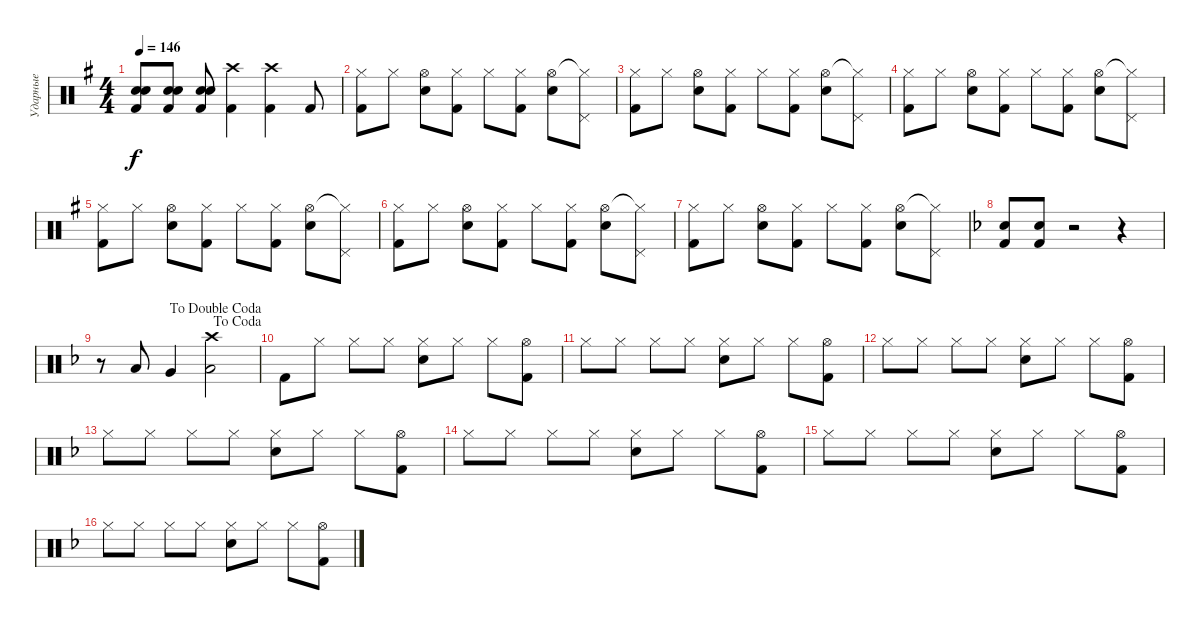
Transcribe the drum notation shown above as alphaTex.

\track ("Ударные" "Ударные") {instrument percussion}
\staff {score}
\articulation defaults
\ts (4 4)
\tempo 146
\clef neutral
\ks g
("Snare (hit) 2" "Snare (hit) 2" "Kick (hit) 2").8{dy f} ("Snare (hit) 2" "Snare (hit) 2" "Kick (hit) 2").8 ("Snare (hit) 2" "Snare (hit) 2" "Kick (hit) 2").8 ("Crash high (hit)" "Kick (hit) 2").4 ("Crash high (hit)" "Kick (hit) 2").4 "Kick (hit) 2".8 |
("Hi-Hat (closed)" "Kick (hit) 2").8 "Hi-Hat (closed)".8 ("Hi-Hat (open)" "Snare (hit) 2").8 ("Hi-Hat (closed)" "Kick (hit) 2").8 "Hi-Hat (closed)".8 ("Hi-Hat (closed)" "Kick (hit) 2").8 ("Hi-Hat (open)" "Snare (hit) 2").8 ("Hi-Hat (closed)"{t} "Pedal Hi-Hat (hit)").8 |
("Hi-Hat (closed)" "Kick (hit) 2").8 "Hi-Hat (closed)".8 ("Hi-Hat (open)" "Snare (hit) 2").8 ("Hi-Hat (closed)" "Kick (hit) 2").8 "Hi-Hat (closed)".8 ("Hi-Hat (closed)" "Kick (hit) 2").8 ("Hi-Hat (open)" "Snare (hit) 2").8 ("Hi-Hat (closed)"{t} "Pedal Hi-Hat (hit)").8 |
("Hi-Hat (closed)" "Kick (hit) 2").8 "Hi-Hat (closed)".8 ("Hi-Hat (open)" "Snare (hit) 2").8 ("Hi-Hat (closed)" "Kick (hit) 2").8 "Hi-Hat (closed)".8 ("Hi-Hat (closed)" "Kick (hit) 2").8 ("Hi-Hat (open)" "Snare (hit) 2").8 ("Hi-Hat (closed)"{t} "Pedal Hi-Hat (hit)").8 |
("Hi-Hat (closed)" "Kick (hit) 2").8 "Hi-Hat (closed)".8 ("Hi-Hat (open)" "Snare (hit) 2").8 ("Hi-Hat (closed)" "Kick (hit) 2").8 "Hi-Hat (closed)".8 ("Hi-Hat (closed)" "Kick (hit) 2").8 ("Hi-Hat (open)" "Snare (hit) 2").8 ("Hi-Hat (closed)"{t} "Pedal Hi-Hat (hit)").8 |
("Hi-Hat (closed)" "Kick (hit) 2").8 "Hi-Hat (closed)".8 ("Hi-Hat (open)" "Snare (hit) 2").8 ("Hi-Hat (closed)" "Kick (hit) 2").8 "Hi-Hat (closed)".8 ("Hi-Hat (closed)" "Kick (hit) 2").8 ("Hi-Hat (open)" "Snare (hit) 2").8 ("Hi-Hat (closed)"{t} "Pedal Hi-Hat (hit)").8 |
("Hi-Hat (closed)" "Kick (hit) 2").8 "Hi-Hat (closed)".8 ("Hi-Hat (open)" "Snare (hit) 2").8 ("Hi-Hat (closed)" "Kick (hit) 2").8 "Hi-Hat (closed)".8 ("Hi-Hat (closed)" "Kick (hit) 2").8 ("Hi-Hat (open)" "Snare (hit) 2").8 ("Hi-Hat (closed)"{t} "Pedal Hi-Hat (hit)").8 |
\ks f
("Snare (hit) 2" "Kick (hit) 2").8 ("Snare (hit) 2" "Kick (hit) 2").8 r.2 r.4 |
\jump dacoda
\jump dadoublecoda
r.8 "Low Tom (hit)".8 "Very Low Tom (hit)".4 ("Crash high (hit)" "Low Floor Tom (hit)").2 |
"Kick (hit) 2".8 "Hi-Hat (closed)".8 "Hi-Hat (closed)".8 "Hi-Hat (closed)".8 ("Hi-Hat (closed)" "Snare (hit) 2").8 "Hi-Hat (closed)".8 "Hi-Hat (closed)".8 ("Hi-Hat (open)" "Kick (hit) 2").8 |
"Hi-Hat (closed)".8 "Hi-Hat (closed)".8 "Hi-Hat (closed)".8 "Hi-Hat (closed)".8 ("Hi-Hat (closed)" "Snare (hit) 2").8 "Hi-Hat (closed)".8 "Hi-Hat (closed)".8 ("Hi-Hat (open)" "Kick (hit) 2").8 |
"Hi-Hat (closed)".8 "Hi-Hat (closed)".8 "Hi-Hat (closed)".8 "Hi-Hat (closed)".8 ("Hi-Hat (closed)" "Snare (hit) 2").8 "Hi-Hat (closed)".8 "Hi-Hat (closed)".8 ("Hi-Hat (open)" "Kick (hit) 2").8 |
"Hi-Hat (closed)".8 "Hi-Hat (closed)".8 "Hi-Hat (closed)".8 "Hi-Hat (closed)".8 ("Hi-Hat (closed)" "Snare (hit) 2").8 "Hi-Hat (closed)".8 "Hi-Hat (closed)".8 ("Hi-Hat (open)" "Kick (hit) 2").8 |
"Hi-Hat (closed)".8 "Hi-Hat (closed)".8 "Hi-Hat (closed)".8 "Hi-Hat (closed)".8 ("Hi-Hat (closed)" "Snare (hit) 2").8 "Hi-Hat (closed)".8 "Hi-Hat (closed)".8 ("Hi-Hat (open)" "Kick (hit) 2").8 |
"Hi-Hat (closed)".8 "Hi-Hat (closed)".8 "Hi-Hat (closed)".8 "Hi-Hat (closed)".8 ("Hi-Hat (closed)" "Snare (hit) 2").8 "Hi-Hat (closed)".8 "Hi-Hat (closed)".8 ("Hi-Hat (open)" "Kick (hit) 2").8 |
"Hi-Hat (closed)".8 "Hi-Hat (closed)".8 "Hi-Hat (closed)".8 "Hi-Hat (closed)".8 ("Hi-Hat (closed)" "Snare (hit) 2").8 "Hi-Hat (closed)".8 "Hi-Hat (closed)".8 ("Hi-Hat (open)" "Kick (hit) 2").8
